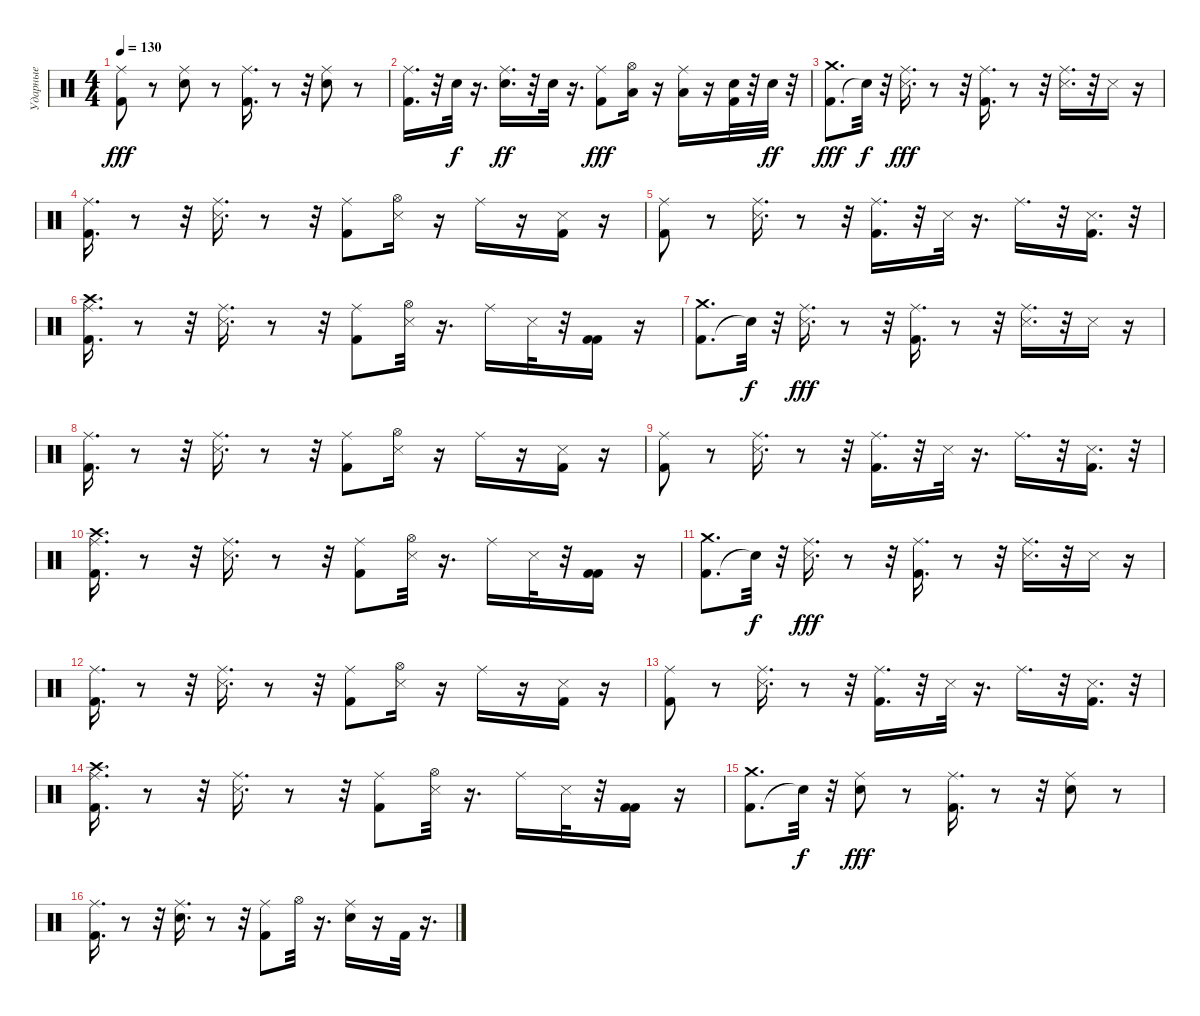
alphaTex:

\track ("Ударные" "Ударные") {instrument percussion}
\staff {score}
\articulation defaults
\ts (4 4)
\tempo 130
\clef neutral
\ks c
("Kick (hit) 2" "Ride (middle)").8{dy fff} r.8 ("Electric Snare (hit)" "Ride (middle)").8 r.8 ("Kick (hit) 2" "Ride (middle)").16{d} r.8 r.32 ("Electric Snare (hit)" "Ride (middle)").8 r.8 |
("Ride (middle)" "Kick (hit) 2").16{d} r.32 "Electric Snare (hit)".32{dy f} r.16{d} ("Ride (middle)" "Electric Snare (hit)").16{d dy ff} r.32 "Electric Snare (hit)".32 r.16{d} ("Kick (hit) 2" "Ride (middle)").8{dy fff} ("Low Tom (hit)" "Hi-Hat (open)").16 r.16 ("Low Tom (hit)" "Ride (middle)").16 r.16 ("Kick (hit) 2" "Snare (hit) 2").32 r.32 "Snare (hit) 2".32{dy ff} r.32 |
("Kick (hit) 2" "Crash medium (hit)").8{d dy fff} "Snare (hit)"{t}.32{dy f} r.32 ("Snare (side stick) 3" "Ride (middle)").16{d dy fff} r.8 r.32 ("Kick (hit) 2" "Ride (middle)").16{d} r.8 r.32 ("Ride (middle)" "Snare (side stick) 3").16{d} r.32 "Snare (side stick) 3".16 r.16 |
("Ride (middle)" "Kick (hit) 2").16{d} r.8 r.32 ("Ride (middle)" "Snare (side stick) 3").16{d} r.8 r.32 ("Kick (hit) 2" "Ride (middle)").8 ("Snare (side stick) 3" "Hi-Hat (open)").16 r.16 "Ride (middle)".16 r.16 ("Kick (hit) 2" "Snare (side stick) 3").16 r.16 |
("Kick (hit) 2" "Ride (middle)").8 r.8 ("Snare (side stick) 3" "Ride (middle)").16{d} r.8 r.32 ("Kick (hit) 2" "Ride (middle)").16{d} r.32 "Snare (side stick) 3".32 r.16{d} "Ride (middle)".16{d} r.32 ("Kick (hit) 2" "Snare (side stick) 3").16{d} r.32 |
("Crash high (hit)" "Ride (middle)" "Kick (hit) 2").16{d} r.8 r.32 ("Ride (middle)" "Snare (side stick) 3").16{d} r.8 r.32 ("Kick (hit) 2" "Ride (middle)").8 ("Hi-Hat (open)" "Snare (side stick) 3").32 r.16{d} "Ride (middle)".16 "Snare (side stick) 3".32 r.32 ("Kick (hit) 2" "Kick (hit) 2").16 r.16 |
("Kick (hit) 2" "Crash medium (hit)").8{d} "Snare (hit)"{t}.32{dy f} r.32 ("Snare (side stick) 3" "Ride (middle)").16{d dy fff} r.8 r.32 ("Kick (hit) 2" "Ride (middle)").16{d} r.8 r.32 ("Ride (middle)" "Snare (side stick) 3").16{d} r.32 "Snare (side stick) 3".16 r.16 |
("Ride (middle)" "Kick (hit) 2").16{d} r.8 r.32 ("Ride (middle)" "Snare (side stick) 3").16{d} r.8 r.32 ("Kick (hit) 2" "Ride (middle)").8 ("Snare (side stick) 3" "Hi-Hat (open)").16 r.16 "Ride (middle)".16 r.16 ("Kick (hit) 2" "Snare (side stick) 3").16 r.16 |
("Kick (hit) 2" "Ride (middle)").8 r.8 ("Snare (side stick) 3" "Ride (middle)").16{d} r.8 r.32 ("Kick (hit) 2" "Ride (middle)").16{d} r.32 "Snare (side stick) 3".32 r.16{d} "Ride (middle)".16{d} r.32 ("Kick (hit) 2" "Snare (side stick) 3").16{d} r.32 |
("Crash high (hit)" "Ride (middle)" "Kick (hit) 2").16{d} r.8 r.32 ("Ride (middle)" "Snare (side stick) 3").16{d} r.8 r.32 ("Kick (hit) 2" "Ride (middle)").8 ("Hi-Hat (open)" "Snare (side stick) 3").32 r.16{d} "Ride (middle)".16 "Snare (side stick) 3".32 r.32 ("Kick (hit) 2" "Kick (hit) 2").16 r.16 |
("Kick (hit) 2" "Crash medium (hit)").8{d} "Snare (hit)"{t}.32{dy f} r.32 ("Snare (side stick) 3" "Ride (middle)").16{d dy fff} r.8 r.32 ("Kick (hit) 2" "Ride (middle)").16{d} r.8 r.32 ("Ride (middle)" "Snare (side stick) 3").16{d} r.32 "Snare (side stick) 3".16 r.16 |
("Ride (middle)" "Kick (hit) 2").16{d} r.8 r.32 ("Ride (middle)" "Snare (side stick) 3").16{d} r.8 r.32 ("Kick (hit) 2" "Ride (middle)").8 ("Snare (side stick) 3" "Hi-Hat (open)").16 r.16 "Ride (middle)".16 r.16 ("Kick (hit) 2" "Snare (side stick) 3").16 r.16 |
("Kick (hit) 2" "Ride (middle)").8 r.8 ("Snare (side stick) 3" "Ride (middle)").16{d} r.8 r.32 ("Kick (hit) 2" "Ride (middle)").16{d} r.32 "Snare (side stick) 3".32 r.16{d} "Ride (middle)".16{d} r.32 ("Kick (hit) 2" "Snare (side stick) 3").16{d} r.32 |
("Crash high (hit)" "Ride (middle)" "Kick (hit) 2").16{d} r.8 r.32 ("Ride (middle)" "Snare (side stick) 3").16{d} r.8 r.32 ("Kick (hit) 2" "Ride (middle)").8 ("Hi-Hat (open)" "Snare (side stick) 3").32 r.16{d} "Ride (middle)".16 "Snare (side stick) 3".32 r.32 ("Kick (hit) 2" "Kick (hit) 2").16 r.16 |
("Kick (hit) 2" "Crash medium (hit)").8{d} "Snare (hit)"{t}.32{dy f} r.32 ("Electric Snare (hit)" "Ride (middle)").8{dy fff} r.8 ("Kick (hit) 2" "Ride (middle)").16{d} r.8 r.32 ("Electric Snare (hit)" "Ride (middle)").8 r.8 |
("Ride (middle)" "Kick (hit) 2").16{d} r.8 r.32 ("Electric Snare (hit)" "Ride (middle)").16{d} r.8 r.32 ("Kick (hit) 2" "Ride (middle)").8 "Hi-Hat (open)".32 r.16{d} ("Electric Snare (hit)" "Ride (middle)").16 r.16 "Kick (hit) 2".32 r.16{d}
